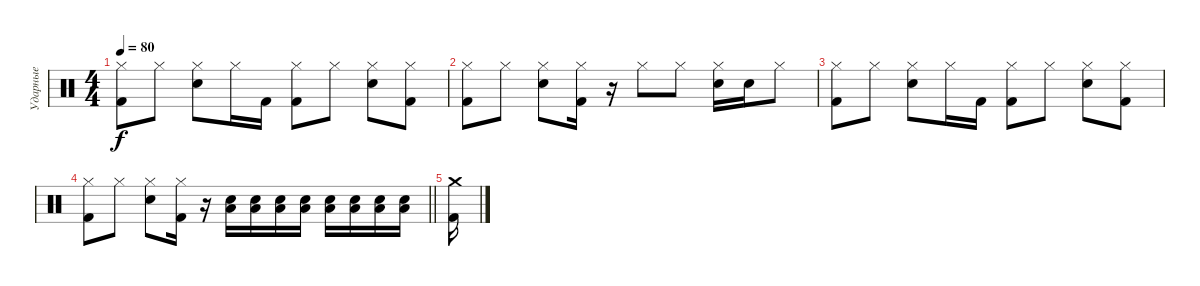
\track ("Ударные" "Ударные") {instrument percussion}
\staff {score}
\articulation defaults
\ts (4 4)
\tempo 80
\clef neutral
\ks c
("Hi-Hat (closed)" "Kick (hit) 2").8{dy f} "Hi-Hat (closed)".8 ("Electric Snare (hit)" "Hi-Hat (closed)").8 "Hi-Hat (closed)".16 "Kick (hit) 2".16 ("Kick (hit) 2" "Hi-Hat (closed)").8 "Hi-Hat (closed)".8 ("Electric Snare (hit)" "Hi-Hat (closed)").8 ("Kick (hit) 2" "Hi-Hat (closed)").8 |
("Hi-Hat (closed)" "Kick (hit) 2").8 "Hi-Hat (closed)".8 ("Electric Snare (hit)" "Hi-Hat (closed)").8 ("Hi-Hat (closed)" "Kick (hit) 2").16 r.16 "Hi-Hat (closed)".8 "Hi-Hat (closed)".8 ("Electric Snare (hit)" "Hi-Hat (closed)").16 "Electric Snare (hit)".16 "Hi-Hat (closed)".8 |
("Hi-Hat (closed)" "Kick (hit) 2").8 "Hi-Hat (closed)".8 ("Electric Snare (hit)" "Hi-Hat (closed)").8 "Hi-Hat (closed)".16 "Kick (hit) 2".16 ("Kick (hit) 2" "Hi-Hat (closed)").8 "Hi-Hat (closed)".8 ("Electric Snare (hit)" "Hi-Hat (closed)").8 ("Kick (hit) 2" "Hi-Hat (closed)").8 |
\barLineRight lightlight
("Hi-Hat (closed)" "Kick (hit) 2").8 "Hi-Hat (closed)".8 ("Electric Snare (hit)" "Hi-Hat (closed)").8 ("Hi-Hat (closed)" "Kick (hit) 2").16 r.16 ("Electric Snare (hit)" "Low Floor Tom (hit)").16 ("Electric Snare (hit)" "Low Floor Tom (hit)").16 ("Electric Snare (hit)" "Low Floor Tom (hit)").16 ("Electric Snare (hit)" "Low Floor Tom (hit)").16 ("Electric Snare (hit)" "Low Floor Tom (hit)").16 ("Electric Snare (hit)" "Low Floor Tom (hit)").16 ("Electric Snare (hit)" "Low Floor Tom (hit)").16 ("Electric Snare (hit)" "Low Floor Tom (hit)").16 |
("Crash medium (hit)" "Kick (hit) 2").16
